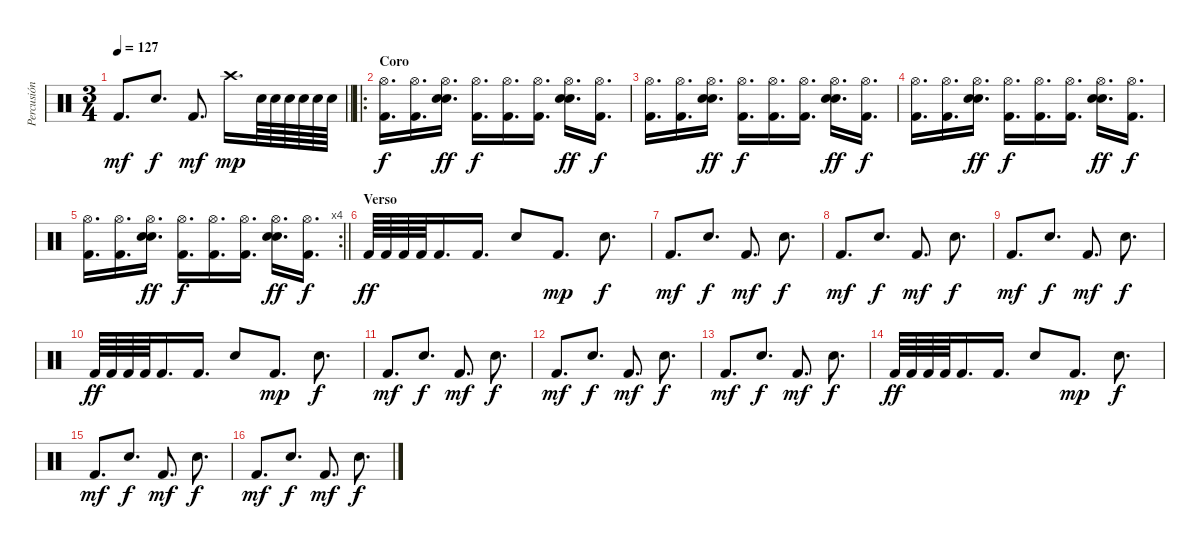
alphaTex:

\track ("Percusión" "Percusión") {instrument percussion}
\staff {score}
\articulation defaults
\ts (3 4)
\tempo 127
\clef neutral
\barLineRight lightlight
\ks c "Kick (hit) 2".8{d dy mf} "Snare (hit) 2".8{d dy f} "Kick (hit) 2".8{d dy mf} "Crash high (hit)".16{d dy mp} "Snare (hit) 2".64 "Snare (hit) 2".64 "Snare (hit) 2".64 "Snare (hit) 2".64 "Snare (hit) 2".64 "Snare (hit) 2".64
|
\ro
\section ("" "Coro")
("Hi-Hat (open)" "Kick (hit) 2").16{d dy f} ("Hi-Hat (open)" "Kick (hit) 2").16{d} ("Hi-Hat (open)" "Snare (hit) 2" "Snare (hit) 2").16{d dy ff} ("Hi-Hat (open)" "Kick (hit) 2").16{d dy f} ("Hi-Hat (open)" "Kick (hit) 2").16{d} ("Hi-Hat (open)" "Kick (hit) 2").16{d} ("Hi-Hat (open)" "Snare (hit) 2" "Snare (hit) 2").16{d dy ff} ("Hi-Hat (open)" "Kick (hit) 2").16{d dy f} |
("Hi-Hat (open)" "Kick (hit) 2").16{d} ("Hi-Hat (open)" "Kick (hit) 2").16{d} ("Hi-Hat (open)" "Snare (hit) 2" "Snare (hit) 2").16{d dy ff} ("Hi-Hat (open)" "Kick (hit) 2").16{d dy f} ("Hi-Hat (open)" "Kick (hit) 2").16{d} ("Hi-Hat (open)" "Kick (hit) 2").16{d} ("Hi-Hat (open)" "Snare (hit) 2" "Snare (hit) 2").16{d dy ff} ("Hi-Hat (open)" "Kick (hit) 2").16{d dy f} |
("Hi-Hat (open)" "Kick (hit) 2").16{d} ("Hi-Hat (open)" "Kick (hit) 2").16{d} ("Hi-Hat (open)" "Snare (hit) 2" "Snare (hit) 2").16{d dy ff} ("Hi-Hat (open)" "Kick (hit) 2").16{d dy f} ("Hi-Hat (open)" "Kick (hit) 2").16{d} ("Hi-Hat (open)" "Kick (hit) 2").16{d} ("Hi-Hat (open)" "Snare (hit) 2" "Snare (hit) 2").16{d dy ff} ("Hi-Hat (open)" "Kick (hit) 2").16{d dy f} |
\rc 4
\barLineRight lightlight
("Hi-Hat (open)" "Kick (hit) 2").16{d} ("Hi-Hat (open)" "Kick (hit) 2").16{d} ("Hi-Hat (open)" "Snare (hit) 2" "Snare (hit) 2").16{d dy ff} ("Hi-Hat (open)" "Kick (hit) 2").16{d dy f} ("Hi-Hat (open)" "Kick (hit) 2").16{d} ("Hi-Hat (open)" "Kick (hit) 2").16{d} ("Hi-Hat (open)" "Snare (hit) 2" "Snare (hit) 2").16{d dy ff} ("Hi-Hat (open)" "Kick (hit) 2").16{d dy f} |
\section ("" "Verso")
"Kick (hit) 2".64{dy ff} "Kick (hit) 2".64 "Kick (hit) 2".64 "Kick (hit) 2".64 "Kick (hit) 2".16{d} "Kick (hit) 2".16{d} "Snare (hit) 2".8 "Kick (hit) 2".8{d dy mp} "Snare (hit) 2".8{d dy f} |
"Kick (hit) 2".8{d dy mf} "Snare (hit) 2".8{d dy f} "Kick (hit) 2".8{d dy mf} "Snare (hit) 2".8{d dy f} |
"Kick (hit) 2".8{d dy mf} "Snare (hit) 2".8{d dy f} "Kick (hit) 2".8{d dy mf} "Snare (hit) 2".8{d dy f} |
"Kick (hit) 2".8{d dy mf} "Snare (hit) 2".8{d dy f} "Kick (hit) 2".8{d dy mf} "Snare (hit) 2".8{d dy f} |
"Kick (hit) 2".64{dy ff} "Kick (hit) 2".64 "Kick (hit) 2".64 "Kick (hit) 2".64 "Kick (hit) 2".16{d} "Kick (hit) 2".16{d} "Snare (hit) 2".8 "Kick (hit) 2".8{d dy mp} "Snare (hit) 2".8{d dy f} |
"Kick (hit) 2".8{d dy mf} "Snare (hit) 2".8{d dy f} "Kick (hit) 2".8{d dy mf} "Snare (hit) 2".8{d dy f} |
"Kick (hit) 2".8{d dy mf} "Snare (hit) 2".8{d dy f} "Kick (hit) 2".8{d dy mf} "Snare (hit) 2".8{d dy f} |
"Kick (hit) 2".8{d dy mf} "Snare (hit) 2".8{d dy f} "Kick (hit) 2".8{d dy mf} "Snare (hit) 2".8{d dy f} |
"Kick (hit) 2".64{dy ff} "Kick (hit) 2".64 "Kick (hit) 2".64 "Kick (hit) 2".64 "Kick (hit) 2".16{d} "Kick (hit) 2".16{d} "Snare (hit) 2".8 "Kick (hit) 2".8{d dy mp} "Snare (hit) 2".8{d dy f} |
"Kick (hit) 2".8{d dy mf} "Snare (hit) 2".8{d dy f} "Kick (hit) 2".8{d dy mf} "Snare (hit) 2".8{d dy f} |
"Kick (hit) 2".8{d dy mf} "Snare (hit) 2".8{d dy f} "Kick (hit) 2".8{d dy mf} "Snare (hit) 2".8{d dy f}
